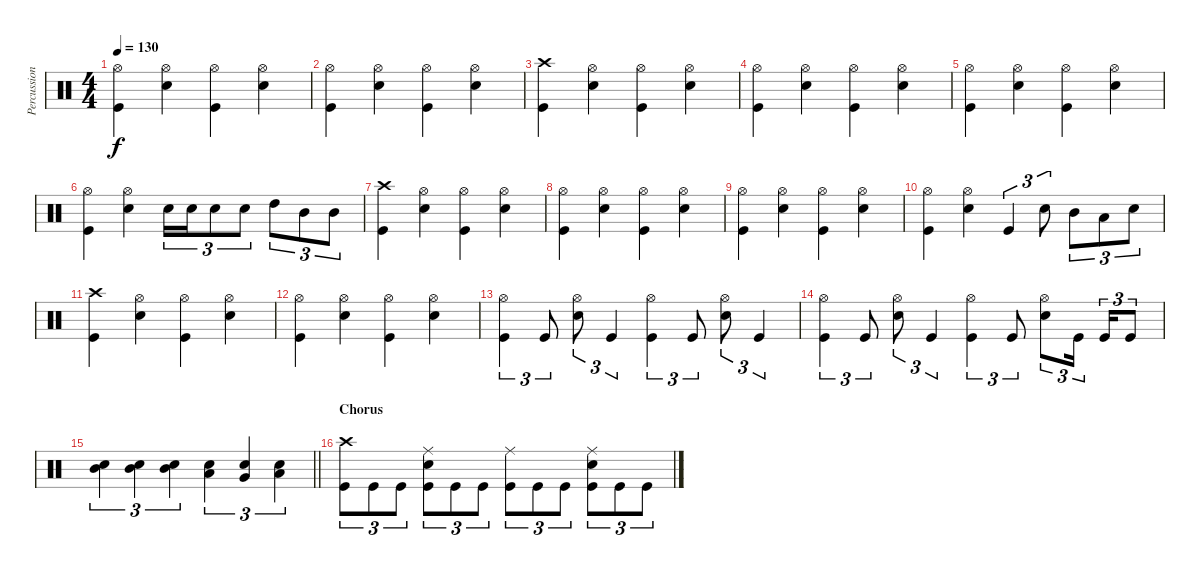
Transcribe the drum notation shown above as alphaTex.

\track ("Percussioni" "Percussion") {instrument percussion}
\staff {score}
\articulation defaults
\ts (4 4)
\tempo 130
\clef neutral
\ks c
("Kick (hit)" "Hi-Hat (open)").4{dy f} ("Snare (hit) 2" "Hi-Hat (open)").4 ("Kick (hit)" "Hi-Hat (open)").4 ("Snare (hit) 2" "Hi-Hat (open)").4 |
("Kick (hit)" "Hi-Hat (open)").4 ("Snare (hit) 2" "Hi-Hat (open)").4 ("Kick (hit)" "Hi-Hat (open)").4 ("Snare (hit) 2" "Hi-Hat (open)").4 |
("Kick (hit)" "Crash high (hit)").4 ("Snare (hit) 2" "Hi-Hat (open)").4 ("Kick (hit)" "Hi-Hat (open)").4 ("Snare (hit) 2" "Hi-Hat (open)").4 |
("Kick (hit)" "Hi-Hat (open)").4 ("Snare (hit) 2" "Hi-Hat (open)").4 ("Kick (hit)" "Hi-Hat (open)").4 ("Snare (hit) 2" "Hi-Hat (open)").4 |
("Kick (hit)" "Hi-Hat (open)").4 ("Snare (hit) 2" "Hi-Hat (open)").4 ("Kick (hit)" "Hi-Hat (open)").4 ("Snare (hit) 2" "Hi-Hat (open)").4 |
("Kick (hit)" "Hi-Hat (open)").4 ("Snare (hit) 2" "Hi-Hat (open)").4 "Snare (hit) 2".16{tu (3 2)} "Snare (hit) 2".16{tu (3 2)} "Snare (hit) 2".8{tu (3 2)} "Snare (hit) 2".8{tu (3 2)} "High Tom (hit)".8{tu (3 2)} "Mid Tom (hit)".8{tu (3 2)} "Mid Tom (hit)".8{tu (3 2)} |
("Kick (hit)" "Crash high (hit)").4 ("Snare (hit) 2" "Hi-Hat (open)").4 ("Kick (hit)" "Hi-Hat (open)").4 ("Snare (hit) 2" "Hi-Hat (open)").4 |
("Kick (hit)" "Hi-Hat (open)").4 ("Snare (hit) 2" "Hi-Hat (open)").4 ("Kick (hit)" "Hi-Hat (open)").4 ("Snare (hit) 2" "Hi-Hat (open)").4 |
("Kick (hit)" "Hi-Hat (open)").4 ("Snare (hit) 2" "Hi-Hat (open)").4 ("Kick (hit)" "Hi-Hat (open)").4 ("Snare (hit) 2" "Hi-Hat (open)").4 |
("Kick (hit)" "Hi-Hat (open)").4 ("Snare (hit) 2" "Hi-Hat (open)").4 "Kick (hit)".4{tu (3 2)} "Snare (hit) 2".8{tu (3 2)} "Mid Tom (hit)".8{tu (3 2)} "Low Tom (hit)".8{tu (3 2)} "Snare (hit) 2".8{tu (3 2)} |
("Kick (hit)" "Crash high (hit)").4 ("Snare (hit) 2" "Hi-Hat (open)").4 ("Kick (hit)" "Hi-Hat (open)").4 ("Snare (hit) 2" "Hi-Hat (open)").4 |
("Kick (hit)" "Hi-Hat (open)").4 ("Snare (hit) 2" "Hi-Hat (open)").4 ("Kick (hit)" "Hi-Hat (open)").4 ("Snare (hit) 2" "Hi-Hat (open)").4 |
("Kick (hit)" "Hi-Hat (open)").4{tu (3 2)} "Kick (hit)".8{tu (3 2)} ("Snare (hit) 2" "Hi-Hat (open)").8{tu (3 2)} "Kick (hit)".4{tu (3 2)} ("Kick (hit)" "Hi-Hat (open)").4{tu (3 2)} "Kick (hit)".8{tu (3 2)} ("Snare (hit) 2" "Hi-Hat (open)").8{tu (3 2)} "Kick (hit)".4{tu (3 2)} |
("Kick (hit)" "Hi-Hat (open)").4{tu (3 2)} "Kick (hit)".8{tu (3 2)} ("Snare (hit) 2" "Hi-Hat (open)").8{tu (3 2)} "Kick (hit)".4{tu (3 2)} ("Kick (hit)" "Hi-Hat (open)").4{tu (3 2)} "Kick (hit)".8{tu (3 2)} ("Snare (hit) 2" "Hi-Hat (open)").8{tu (3 2)} "Kick (hit)".16{tu (3 2) beam splitsecondary} "Kick (hit)".16{tu (3 2)} "Kick (hit)".8{tu (3 2)} |
\barLineRight lightlight
("Snare (hit) 2" "Mid Tom (hit)").4{tu (3 2)} ("Snare (hit) 2" "Mid Tom (hit)").4{tu (3 2)} ("Snare (hit) 2" "Mid Tom (hit)").4{tu (3 2)} ("Snare (hit) 2" "Low Tom (hit)").4{tu (3 2)} ("Snare (hit) 2" "Very Low Tom (hit)").4{tu (3 2)} ("Snare (hit) 2" "Low Floor Tom (hit)").4{tu (3 2)} |
\section ("" "Chorus")
("Kick (hit)" "Crash high (hit)").8{tu (3 2)} "Kick (hit)".8{tu (3 2)} "Kick (hit)".8{tu (3 2)} ("Kick (hit)" "Snare (hit) 2" "Ride (middle)").8{tu (3 2)} "Kick (hit)".8{tu (3 2)} "Kick (hit)".8{tu (3 2)} ("Kick (hit)" "Ride (middle)").8{tu (3 2)} "Kick (hit)".8{tu (3 2)} "Kick (hit)".8{tu (3 2)} ("Kick (hit)" "Snare (hit) 2" "Ride (middle)").8{tu (3 2)} "Kick (hit)".8{tu (3 2)} "Kick (hit)".8{tu (3 2)}
